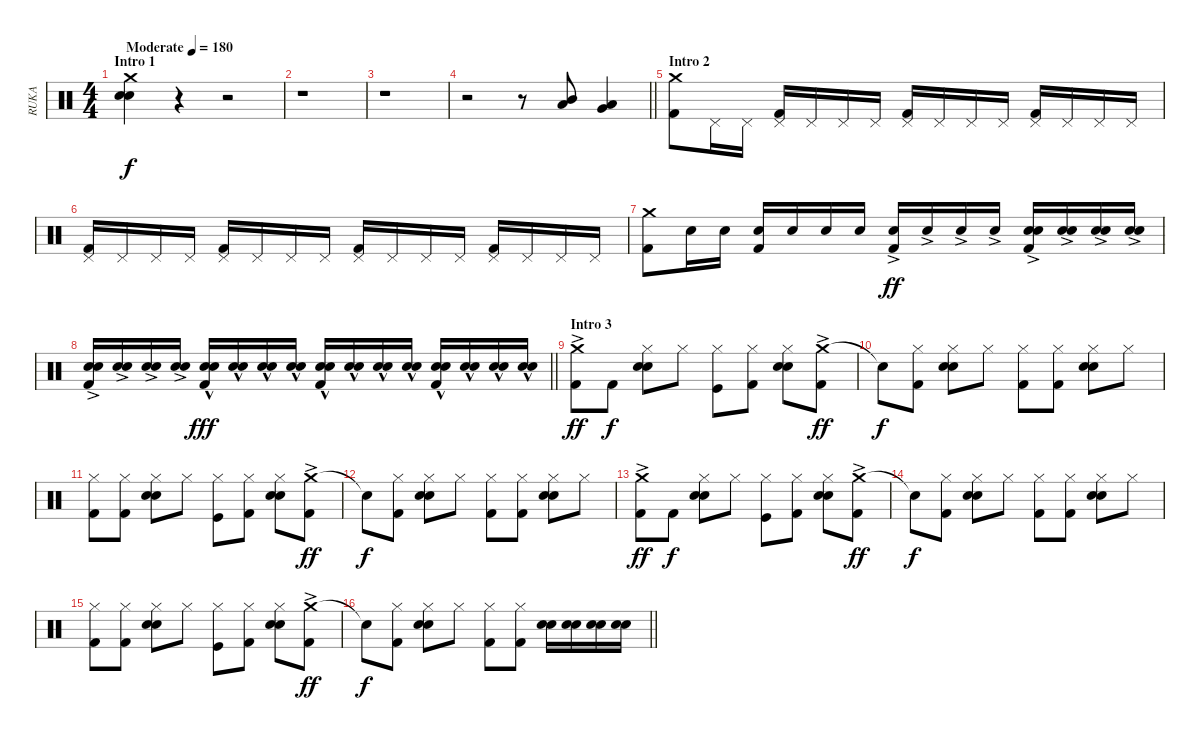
\track ("RUKA" "RUKA") {instrument percussion}
\staff {score}
\articulation defaults
\ts (4 4)
\section ("" "Intro 1")
\tempo (180 "Moderate")
\clef neutral
\ks c
("Crash medium (hit)" "Snare (hit) 2" "Electric Snare (hit)").4{dy f} r.4 r.2 |
r.1 |
r.1 |
\barLineRight lightlight
r.2 r.8 ("Mid Tom (hit)" "Low Tom (hit)").8 ("Low Tom (hit)" "Very Low Tom (hit)").4 |
\section ("" "Intro 2")
("Crash medium (hit)" "Kick (hit) 2").8 "Pedal Hi-Hat (hit)".16 "Pedal Hi-Hat (hit)".16 ("Pedal Hi-Hat (hit)" "Kick (hit) 2").16 "Pedal Hi-Hat (hit)".16 "Pedal Hi-Hat (hit)".16 "Pedal Hi-Hat (hit)".16 ("Pedal Hi-Hat (hit)" "Kick (hit) 2").16 "Pedal Hi-Hat (hit)".16 "Pedal Hi-Hat (hit)".16 "Pedal Hi-Hat (hit)".16 ("Pedal Hi-Hat (hit)" "Kick (hit) 2").16 "Pedal Hi-Hat (hit)".16 "Pedal Hi-Hat (hit)".16 "Pedal Hi-Hat (hit)".16 |
("Pedal Hi-Hat (hit)" "Kick (hit) 2").16 "Pedal Hi-Hat (hit)".16 "Pedal Hi-Hat (hit)".16 "Pedal Hi-Hat (hit)".16 ("Pedal Hi-Hat (hit)" "Kick (hit) 2").16 "Pedal Hi-Hat (hit)".16 "Pedal Hi-Hat (hit)".16 "Pedal Hi-Hat (hit)".16 ("Pedal Hi-Hat (hit)" "Kick (hit) 2").16 "Pedal Hi-Hat (hit)".16 "Pedal Hi-Hat (hit)".16 "Pedal Hi-Hat (hit)".16 ("Pedal Hi-Hat (hit)" "Kick (hit) 2").16 "Pedal Hi-Hat (hit)".16 "Pedal Hi-Hat (hit)".16 "Pedal Hi-Hat (hit)".16 |
("Crash medium (hit)" "Kick (hit) 2").8 "Snare (hit) 2".16 "Snare (hit) 2".16 ("Snare (hit) 2" "Kick (hit) 2").16 "Snare (hit) 2".16 "Snare (hit) 2".16 "Snare (hit) 2".16 ("Snare (hit) 2"{ac} "Kick (hit) 2"{ac}).16{dy ff} "Snare (hit) 2"{ac}.16 "Snare (hit) 2"{ac}.16 "Snare (hit) 2"{ac}.16 ("Snare (hit) 2"{ac} "Electric Snare (hit)"{ac} "Kick (hit) 2"{ac}).16 ("Snare (hit) 2"{ac} "Electric Snare (hit)"{ac}).16 ("Snare (hit) 2"{ac} "Electric Snare (hit)"{ac}).16 ("Snare (hit) 2"{ac} "Electric Snare (hit)"{ac}).16 |
\barLineRight lightlight
("Snare (hit) 2"{ac} "Electric Snare (hit)"{ac} "Kick (hit) 2"{ac}).16 ("Snare (hit) 2"{ac} "Electric Snare (hit)"{ac}).16 ("Snare (hit) 2"{ac} "Electric Snare (hit)"{ac}).16 ("Snare (hit) 2"{ac} "Electric Snare (hit)"{ac}).16 ("Snare (hit) 2"{hac} "Electric Snare (hit)"{hac} "Kick (hit) 2").16{dy fff} ("Snare (hit) 2"{hac} "Electric Snare (hit)"{hac}).16 ("Snare (hit) 2"{hac} "Electric Snare (hit)"{hac}).16 ("Snare (hit) 2"{hac} "Electric Snare (hit)"{hac}).16 ("Snare (hit) 2"{hac} "Electric Snare (hit)"{hac} "Kick (hit) 2").16 ("Snare (hit) 2"{hac} "Electric Snare (hit)"{hac}).16 ("Snare (hit) 2"{hac} "Electric Snare (hit)"{hac}).16 ("Snare (hit) 2"{hac} "Electric Snare (hit)"{hac}).16 ("Snare (hit) 2"{hac} "Electric Snare (hit)"{hac} "Kick (hit) 2").16 ("Snare (hit) 2"{hac} "Electric Snare (hit)"{hac}).16 ("Snare (hit) 2"{hac} "Electric Snare (hit)"{hac}).16 ("Snare (hit) 2"{hac} "Electric Snare (hit)"{hac}).16 |
\section ("" "Intro 3")
("Crash medium (hit)"{ac} "Kick (hit) 2").8{dy ff} "Kick (hit) 2".8{dy f} ("Hi-Hat (closed)" "Snare (hit) 2" "Electric Snare (hit)").8 "Hi-Hat (closed)".8 ("Hi-Hat (closed)" "Kick (hit)").8 ("Hi-Hat (closed)" "Kick (hit) 2").8 ("Hi-Hat (closed)" "Snare (hit) 2" "Electric Snare (hit)").8 ("Crash medium (hit)"{ac} "Kick (hit) 2").8{dy ff} |
"Snare (hit)"{t}.8{dy f} ("Hi-Hat (closed)" "Kick (hit) 2").8 ("Hi-Hat (closed)" "Snare (hit) 2" "Electric Snare (hit)").8 "Hi-Hat (closed)".8 ("Hi-Hat (closed)" "Kick (hit) 2").8 ("Hi-Hat (closed)" "Kick (hit) 2").8 ("Hi-Hat (closed)" "Snare (hit) 2" "Electric Snare (hit)").8 "Hi-Hat (closed)".8 |
("Hi-Hat (closed)" "Kick (hit) 2").8 ("Hi-Hat (closed)" "Kick (hit) 2").8 ("Hi-Hat (closed)" "Snare (hit) 2" "Electric Snare (hit)").8 "Hi-Hat (closed)".8 ("Hi-Hat (closed)" "Kick (hit)").8 ("Hi-Hat (closed)" "Kick (hit) 2").8 ("Hi-Hat (closed)" "Snare (hit) 2" "Electric Snare (hit)").8 ("Crash medium (hit)"{ac} "Kick (hit) 2").8{dy ff} |
"Snare (hit)"{t}.8{dy f} ("Hi-Hat (closed)" "Kick (hit) 2").8 ("Hi-Hat (closed)" "Snare (hit) 2" "Electric Snare (hit)").8 "Hi-Hat (closed)".8 ("Hi-Hat (closed)" "Kick (hit) 2").8 ("Hi-Hat (closed)" "Kick (hit) 2").8 ("Hi-Hat (closed)" "Snare (hit) 2" "Electric Snare (hit)").8 "Hi-Hat (closed)".8 |
("Crash medium (hit)"{ac} "Kick (hit) 2").8{dy ff} "Kick (hit) 2".8{dy f} ("Hi-Hat (closed)" "Snare (hit) 2" "Electric Snare (hit)").8 "Hi-Hat (closed)".8 ("Hi-Hat (closed)" "Kick (hit)").8 ("Hi-Hat (closed)" "Kick (hit) 2").8 ("Hi-Hat (closed)" "Snare (hit) 2" "Electric Snare (hit)").8 ("Crash medium (hit)"{ac} "Kick (hit) 2").8{dy ff} |
"Snare (hit)"{t}.8{dy f} ("Hi-Hat (closed)" "Kick (hit) 2").8 ("Hi-Hat (closed)" "Snare (hit) 2" "Electric Snare (hit)").8 "Hi-Hat (closed)".8 ("Hi-Hat (closed)" "Kick (hit) 2").8 ("Hi-Hat (closed)" "Kick (hit) 2").8 ("Hi-Hat (closed)" "Snare (hit) 2" "Electric Snare (hit)").8 "Hi-Hat (closed)".8 |
("Hi-Hat (closed)" "Kick (hit) 2").8 ("Hi-Hat (closed)" "Kick (hit) 2").8 ("Hi-Hat (closed)" "Snare (hit) 2" "Electric Snare (hit)").8 "Hi-Hat (closed)".8 ("Hi-Hat (closed)" "Kick (hit)").8 ("Hi-Hat (closed)" "Kick (hit) 2").8 ("Hi-Hat (closed)" "Snare (hit) 2" "Electric Snare (hit)").8 ("Crash medium (hit)"{ac} "Kick (hit) 2").8{dy ff} |
\barLineRight lightlight "Snare (hit)"{t}.8{dy f}
("Hi-Hat (closed)" "Kick (hit) 2").8 ("Hi-Hat (closed)" "Snare (hit) 2" "Electric Snare (hit)").8 "Hi-Hat (closed)".8 ("Hi-Hat (closed)" "Kick (hit) 2").8 ("Hi-Hat (closed)" "Kick (hit) 2").8 ("Snare (hit) 2" "Electric Snare (hit)").16 ("Snare (hit) 2" "Electric Snare (hit)").16 ("Snare (hit) 2" "Electric Snare (hit)").16 ("Snare (hit) 2" "Electric Snare (hit)").16
